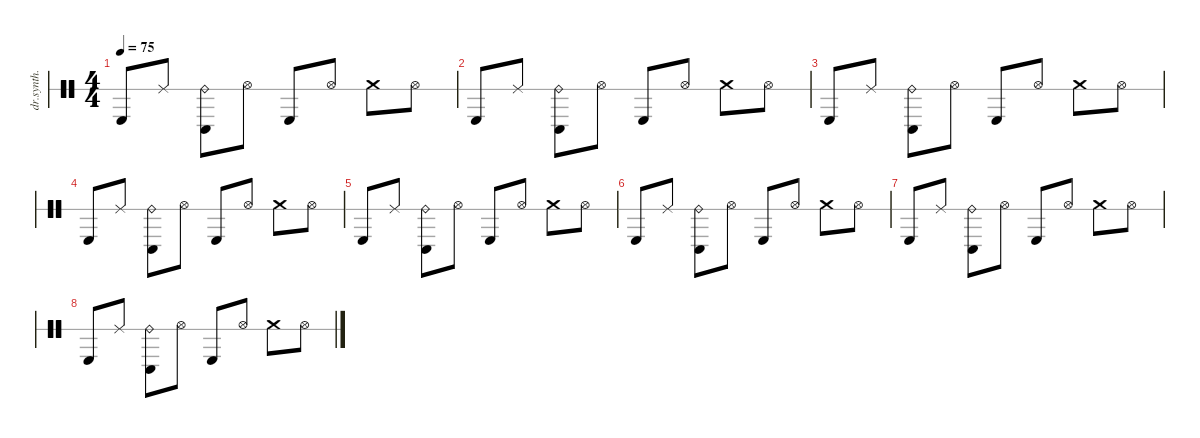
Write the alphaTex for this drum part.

\defaultSystemsLayout 4
\hideDynamics
\bracketExtendMode nobrackets
\otherSystemsTrackNameOrientation horizontal
\track ("Synth Drum" "dr.synth.") {instrument percussion}
\staff {score 1}
\articulation defaults
\ts (4 4)
\tempo 75
\clef neutral
\ks c "Kick (hit) 2".8{dy mf beam Up} "Ride (middle)".8{dy f beam Up}
("Ride (bell)" "Timbale high (hit)").8{dy mp beam Down} "Hi-Hat (open)".8{dy mf beam Down} "Kick (hit) 2".8{beam Up} "Hi-Hat (open)".8{beam Up} "Crash medium (hit)".8{beam Down} "Hi-Hat (open)".8{beam Down} |
"Kick (hit) 2".8{beam Up} "Ride (middle)".8{dy f beam Up} ("Ride (bell)" "Timbale high (hit)").8{dy mp beam Down} "Hi-Hat (open)".8{dy mf beam Down} "Kick (hit) 2".8{beam Up} "Hi-Hat (open)".8{beam Up} "Crash medium (hit)".8{beam Down} "Hi-Hat (open)".8{beam Down} |
"Kick (hit) 2".8{beam Up} "Ride (middle)".8{dy f beam Up} ("Ride (bell)" "Timbale high (hit)").8{dy mp beam Down} "Hi-Hat (open)".8{dy mf beam Down} "Kick (hit) 2".8{beam Up} "Hi-Hat (open)".8{beam Up} "Crash medium (hit)".8{beam Down} "Hi-Hat (open)".8{beam Down} |
"Kick (hit) 2".8{beam Up} "Ride (middle)".8{dy f beam Up} ("Ride (bell)" "Timbale high (hit)").8{dy mp beam Down} "Hi-Hat (open)".8{dy mf beam Down} "Kick (hit) 2".8{beam Up} "Hi-Hat (open)".8{beam Up} "Crash medium (hit)".8{beam Down} "Hi-Hat (open)".8{beam Down} |
"Kick (hit) 2".8{beam Up} "Ride (middle)".8{dy f beam Up} ("Ride (bell)" "Timbale high (hit)").8{dy mp beam Down} "Hi-Hat (open)".8{dy mf beam Down} "Kick (hit) 2".8{beam Up} "Hi-Hat (open)".8{beam Up} "Crash medium (hit)".8{beam Down} "Hi-Hat (open)".8{beam Down} |
"Kick (hit) 2".8{beam Up} "Ride (middle)".8{dy f beam Up} ("Ride (bell)" "Timbale high (hit)").8{dy mp beam Down} "Hi-Hat (open)".8{dy mf beam Down} "Kick (hit) 2".8{beam Up} "Hi-Hat (open)".8{beam Up} "Crash medium (hit)".8{beam Down} "Hi-Hat (open)".8{beam Down} |
"Kick (hit) 2".8{beam Up} "Ride (middle)".8{dy f beam Up} ("Ride (bell)" "Timbale high (hit)").8{dy mp beam Down} "Hi-Hat (open)".8{dy mf beam Down} "Kick (hit) 2".8{beam Up} "Hi-Hat (open)".8{beam Up} "Crash medium (hit)".8{beam Down} "Hi-Hat (open)".8{beam Down} |
"Kick (hit) 2".8{beam Up} "Ride (middle)".8{dy f beam Up} ("Ride (bell)" "Timbale high (hit)").8{dy mp beam Down} "Hi-Hat (open)".8{dy mf beam Down} "Kick (hit) 2".8{beam Up} "Hi-Hat (open)".8{beam Up} "Crash medium (hit)".8{beam Down} "Hi-Hat (open)".8{beam Down}
